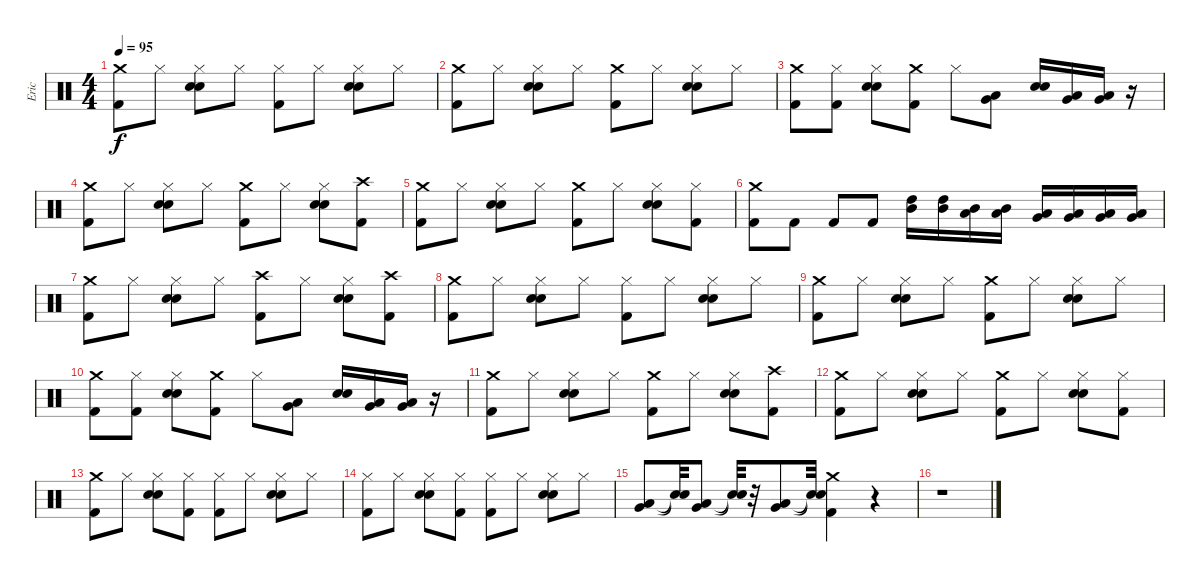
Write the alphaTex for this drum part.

\track ("Eric" "Eric") {instrument percussion}
\staff {score}
\articulation defaults
\ts (4 4)
\tempo 95
\clef neutral
\ks c
("Crash medium (hit)" "Kick (hit) 2").8{dy f} "Hi-Hat (closed)".8 ("Hi-Hat (closed)" "Electric Snare (hit)" "Snare (hit) 2").8 "Hi-Hat (closed)".8 ("Hi-Hat (closed)" "Kick (hit) 2").8 "Hi-Hat (closed)".8 ("Hi-Hat (closed)" "Electric Snare (hit)" "Snare (hit) 2").8 "Hi-Hat (closed)".8 |
("Crash medium (hit)" "Kick (hit) 2").8 "Hi-Hat (closed)".8 ("Hi-Hat (closed)" "Electric Snare (hit)" "Snare (hit) 2").8 "Hi-Hat (closed)".8 ("Crash medium (hit)" "Kick (hit) 2").8 "Hi-Hat (closed)".8 ("Hi-Hat (closed)" "Electric Snare (hit)" "Snare (hit) 2").8 "Hi-Hat (closed)".8 |
("Crash medium (hit)" "Kick (hit) 2").8 ("Kick (hit) 2" "Hi-Hat (closed)").8 ("Hi-Hat (closed)" "Electric Snare (hit)" "Snare (hit) 2").8 ("Crash medium (hit)" "Kick (hit) 2").8 "Hi-Hat (closed)".8 ("Low Tom (hit)" "Very Low Tom (hit)").8 ("Snare (hit) 2" "Electric Snare (hit)").16 ("Very Low Tom (hit)" "Low Tom (hit)").16 ("Very Low Tom (hit)" "Low Tom (hit)").16 r.16 |
("Crash medium (hit)" "Kick (hit) 2").8 "Hi-Hat (closed)".8 ("Hi-Hat (closed)" "Electric Snare (hit)" "Snare (hit) 2").8 "Hi-Hat (closed)".8 ("Crash medium (hit)" "Kick (hit) 2").8 "Hi-Hat (closed)".8 ("Hi-Hat (closed)" "Electric Snare (hit)" "Snare (hit) 2").8 ("Kick (hit) 2" "Crash high (hit)").8 |
("Crash medium (hit)" "Kick (hit) 2").8 "Hi-Hat (closed)".8 ("Hi-Hat (closed)" "Electric Snare (hit)" "Snare (hit) 2").8 "Hi-Hat (closed)".8 ("Crash medium (hit)" "Kick (hit) 2").8 "Hi-Hat (closed)".8 ("Hi-Hat (closed)" "Electric Snare (hit)" "Snare (hit) 2").8 ("Kick (hit) 2" "Hi-Hat (closed)").8 |
("Crash medium (hit)" "Kick (hit) 2").8 "Kick (hit) 2".8 "Kick (hit) 2".8 "Kick (hit) 2".8 ("Mid Tom (hit)" "High Tom (hit)").16 ("Mid Tom (hit)" "High Tom (hit)").16 ("Low Tom (hit)" "Mid Tom (hit)").16 ("Low Tom (hit)" "Mid Tom (hit)").16 ("Low Tom (hit)" "Very Low Tom (hit)").16 ("Low Tom (hit)" "Very Low Tom (hit)").16 ("Very Low Tom (hit)" "Low Floor Tom (hit)").16 ("Very Low Tom (hit)" "Low Floor Tom (hit)").16 |
("Crash medium (hit)" "Kick (hit) 2").8 "Hi-Hat (closed)".8 ("Hi-Hat (closed)" "Electric Snare (hit)" "Snare (hit) 2").8 "Hi-Hat (closed)".8 ("Crash high (hit)" "Kick (hit) 2").8 "Hi-Hat (closed)".8 ("Hi-Hat (closed)" "Electric Snare (hit)" "Snare (hit) 2").8 ("Kick (hit) 2" "Crash high (hit)").8 |
("Crash medium (hit)" "Kick (hit) 2").8 "Hi-Hat (closed)".8 ("Hi-Hat (closed)" "Electric Snare (hit)" "Snare (hit) 2").8 "Hi-Hat (closed)".8 ("Hi-Hat (closed)" "Kick (hit) 2").8 "Hi-Hat (closed)".8 ("Hi-Hat (closed)" "Electric Snare (hit)" "Snare (hit) 2").8 "Hi-Hat (closed)".8 |
("Crash medium (hit)" "Kick (hit) 2").8 "Hi-Hat (closed)".8 ("Hi-Hat (closed)" "Electric Snare (hit)" "Snare (hit) 2").8 "Hi-Hat (closed)".8 ("Crash medium (hit)" "Kick (hit) 2").8 "Hi-Hat (closed)".8 ("Hi-Hat (closed)" "Electric Snare (hit)" "Snare (hit) 2").8 "Hi-Hat (closed)".8 |
("Crash medium (hit)" "Kick (hit) 2").8 ("Kick (hit) 2" "Hi-Hat (closed)").8 ("Hi-Hat (closed)" "Electric Snare (hit)" "Snare (hit) 2").8 ("Crash medium (hit)" "Kick (hit) 2").8 "Hi-Hat (closed)".8 ("Low Tom (hit)" "Very Low Tom (hit)").8 ("Snare (hit) 2" "Electric Snare (hit)").16 ("Very Low Tom (hit)" "Low Tom (hit)").16 ("Very Low Tom (hit)" "Low Tom (hit)").16 r.16 |
("Crash medium (hit)" "Kick (hit) 2").8 "Hi-Hat (closed)".8 ("Hi-Hat (closed)" "Electric Snare (hit)" "Snare (hit) 2").8 "Hi-Hat (closed)".8 ("Crash medium (hit)" "Kick (hit) 2").8 "Hi-Hat (closed)".8 ("Hi-Hat (closed)" "Electric Snare (hit)" "Snare (hit) 2").8 ("Kick (hit) 2" "Crash high (hit)").8 |
("Crash medium (hit)" "Kick (hit) 2").8 "Hi-Hat (closed)".8 ("Hi-Hat (closed)" "Electric Snare (hit)" "Snare (hit) 2").8 "Hi-Hat (closed)".8 ("Crash medium (hit)" "Kick (hit) 2").8 "Hi-Hat (closed)".8 ("Hi-Hat (closed)" "Electric Snare (hit)" "Snare (hit) 2").8 ("Kick (hit) 2" "Hi-Hat (closed)").8 |
("Crash medium (hit)" "Kick (hit) 2").8 "Hi-Hat (closed)".8 ("Hi-Hat (closed)" "Electric Snare (hit)" "Snare (hit) 2").8 ("Hi-Hat (closed)" "Kick (hit) 2").8 ("Hi-Hat (closed)" "Kick (hit) 2").8 "Hi-Hat (closed)".8 ("Hi-Hat (closed)" "Snare (hit) 2" "Electric Snare (hit)").8 "Hi-Hat (closed)".8 |
("Hi-Hat (closed)" "Kick (hit) 2").8 "Hi-Hat (closed)".8 ("Hi-Hat (closed)" "Snare (hit) 2" "Electric Snare (hit)").8 ("Hi-Hat (closed)" "Kick (hit) 2").8 ("Hi-Hat (closed)" "Kick (hit) 2").8 "Hi-Hat (closed)".8 ("Hi-Hat (closed)" "Electric Snare (hit)" "Snare (hit) 2").8 "Hi-Hat (closed)".8 |
("Low Tom (hit)" "Very Low Tom (hit)").8 ("Snare (hit)"{t} "Snare (hit)"{t}).32 ("Low Tom (hit)" "Very Low Tom (hit)").8 ("Snare (hit)"{t} "Snare (hit)"{t}).32 r.32 ("Low Tom (hit)" "Very Low Tom (hit)").8 ("Snare (hit)"{t} "Snare (hit)"{t}).32 ("Crash medium (hit)" "Kick (hit) 2").4 r.4 |
r.1
